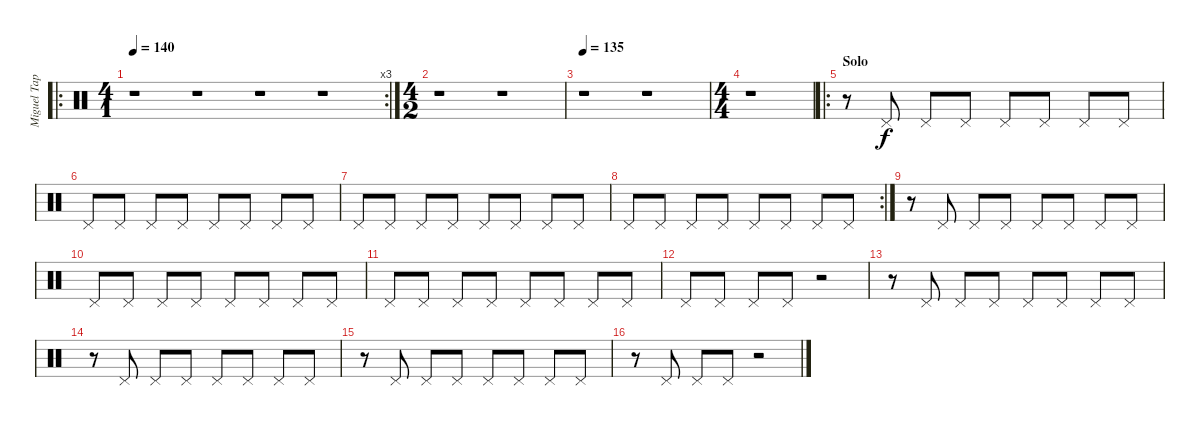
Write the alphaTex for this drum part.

\track ("Miguel Tapia" "Miguel Tap") {instrument percussion}
\staff {score}
\articulation defaults
\ro
\rc 3
\ts (4 1)
\tempo 140
\tempo 135
\tempo 140
\clef neutral
\ks c
r.1{dy f} r.1 r.1 r.1 |
\ts (4 2)
r.1 r.1 |
\tempo 135
r.1 r.1 |
\ts (4 4)
r.1 |
\ro
\section ("" "Solo")
r.8 "Pedal Hi-Hat (hit)".8 "Pedal Hi-Hat (hit)".8 "Pedal Hi-Hat (hit)".8 "Pedal Hi-Hat (hit)".8 "Pedal Hi-Hat (hit)".8 "Pedal Hi-Hat (hit)".8 "Pedal Hi-Hat (hit)".8 |
"Pedal Hi-Hat (hit)".8 "Pedal Hi-Hat (hit)".8 "Pedal Hi-Hat (hit)".8 "Pedal Hi-Hat (hit)".8 "Pedal Hi-Hat (hit)".8 "Pedal Hi-Hat (hit)".8 "Pedal Hi-Hat (hit)".8 "Pedal Hi-Hat (hit)".8 |
"Pedal Hi-Hat (hit)".8 "Pedal Hi-Hat (hit)".8 "Pedal Hi-Hat (hit)".8 "Pedal Hi-Hat (hit)".8 "Pedal Hi-Hat (hit)".8 "Pedal Hi-Hat (hit)".8 "Pedal Hi-Hat (hit)".8 "Pedal Hi-Hat (hit)".8 |
\rc 2 "Pedal Hi-Hat (hit)".8 "Pedal Hi-Hat (hit)".8 "Pedal Hi-Hat (hit)".8 "Pedal Hi-Hat (hit)".8 "Pedal Hi-Hat (hit)".8 "Pedal Hi-Hat (hit)".8 "Pedal Hi-Hat (hit)".8 "Pedal Hi-Hat (hit)".8
|
r.8 "Pedal Hi-Hat (hit)".8 "Pedal Hi-Hat (hit)".8 "Pedal Hi-Hat (hit)".8 "Pedal Hi-Hat (hit)".8 "Pedal Hi-Hat (hit)".8 "Pedal Hi-Hat (hit)".8 "Pedal Hi-Hat (hit)".8 |
"Pedal Hi-Hat (hit)".8 "Pedal Hi-Hat (hit)".8 "Pedal Hi-Hat (hit)".8 "Pedal Hi-Hat (hit)".8 "Pedal Hi-Hat (hit)".8 "Pedal Hi-Hat (hit)".8 "Pedal Hi-Hat (hit)".8 "Pedal Hi-Hat (hit)".8 |
"Pedal Hi-Hat (hit)".8 "Pedal Hi-Hat (hit)".8 "Pedal Hi-Hat (hit)".8 "Pedal Hi-Hat (hit)".8 "Pedal Hi-Hat (hit)".8 "Pedal Hi-Hat (hit)".8 "Pedal Hi-Hat (hit)".8 "Pedal Hi-Hat (hit)".8 |
"Pedal Hi-Hat (hit)".8 "Pedal Hi-Hat (hit)".8 "Pedal Hi-Hat (hit)".8 "Pedal Hi-Hat (hit)".8 r.2 |
r.8 "Pedal Hi-Hat (hit)".8 "Pedal Hi-Hat (hit)".8 "Pedal Hi-Hat (hit)".8 "Pedal Hi-Hat (hit)".8 "Pedal Hi-Hat (hit)".8 "Pedal Hi-Hat (hit)".8 "Pedal Hi-Hat (hit)".8 |
r.8 "Pedal Hi-Hat (hit)".8 "Pedal Hi-Hat (hit)".8 "Pedal Hi-Hat (hit)".8 "Pedal Hi-Hat (hit)".8 "Pedal Hi-Hat (hit)".8 "Pedal Hi-Hat (hit)".8 "Pedal Hi-Hat (hit)".8 |
r.8 "Pedal Hi-Hat (hit)".8 "Pedal Hi-Hat (hit)".8 "Pedal Hi-Hat (hit)".8 "Pedal Hi-Hat (hit)".8 "Pedal Hi-Hat (hit)".8 "Pedal Hi-Hat (hit)".8 "Pedal Hi-Hat (hit)".8 |
r.8 "Pedal Hi-Hat (hit)".8 "Pedal Hi-Hat (hit)".8 "Pedal Hi-Hat (hit)".8 r.2
